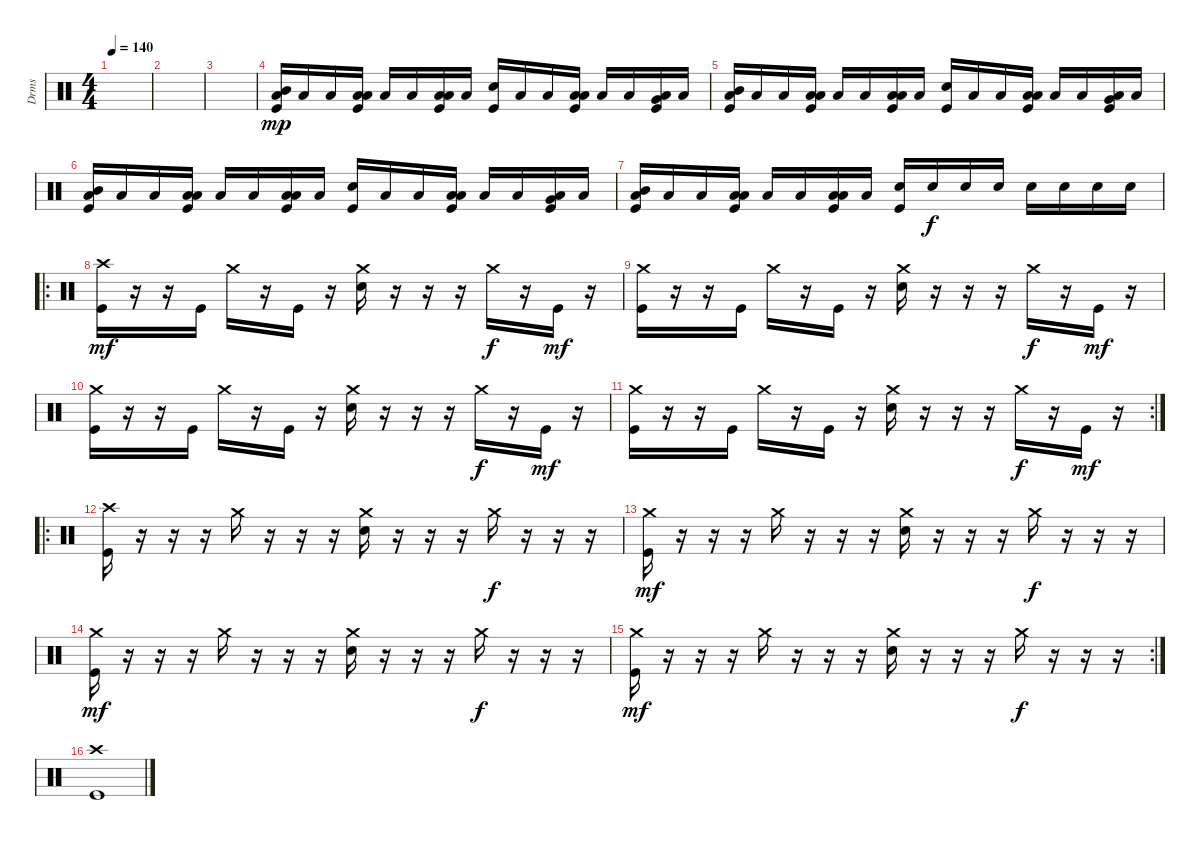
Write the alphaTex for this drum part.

\track ("Drms" "Drms") {instrument percussion}
\staff {score}
\articulation defaults
\ts (4 4)
\tempo 140
\clef neutral
\ks c
|
|
|
("Mid Tom (hit)" "Low Floor Tom (hit)" "Kick (hit)").16{dy mp} "Low Floor Tom (hit)".16 "Low Floor Tom (hit)".16 ("Low Tom (hit)" "Low Floor Tom (hit)" "Kick (hit)").16 "Low Floor Tom (hit)".16 "Low Floor Tom (hit)".16 ("Low Tom (hit)" "Low Floor Tom (hit)" "Kick (hit)").16 "Low Floor Tom (hit)".16 ("Electric Snare (hit)" "Kick (hit)").16 "Low Floor Tom (hit)".16 "Low Floor Tom (hit)".16 ("Low Tom (hit)" "Low Floor Tom (hit)" "Kick (hit)").16 "Low Floor Tom (hit)".16 "Low Floor Tom (hit)".16 ("Very Low Tom (hit)" "Low Floor Tom (hit)" "Kick (hit)").16 "Low Floor Tom (hit)".16 |
("Mid Tom (hit)" "Low Floor Tom (hit)" "Kick (hit)").16 "Low Floor Tom (hit)".16 "Low Floor Tom (hit)".16 ("Low Tom (hit)" "Low Floor Tom (hit)" "Kick (hit)").16 "Low Floor Tom (hit)".16 "Low Floor Tom (hit)".16 ("Low Tom (hit)" "Low Floor Tom (hit)" "Kick (hit)").16 "Low Floor Tom (hit)".16 ("Electric Snare (hit)" "Kick (hit)").16 "Low Floor Tom (hit)".16 "Low Floor Tom (hit)".16 ("Low Tom (hit)" "Low Floor Tom (hit)" "Kick (hit)").16 "Low Floor Tom (hit)".16 "Low Floor Tom (hit)".16 ("Very Low Tom (hit)" "Low Floor Tom (hit)" "Kick (hit)").16 "Low Floor Tom (hit)".16 |
("Mid Tom (hit)" "Low Floor Tom (hit)" "Kick (hit)").16 "Low Floor Tom (hit)".16 "Low Floor Tom (hit)".16 ("Low Tom (hit)" "Low Floor Tom (hit)" "Kick (hit)").16 "Low Floor Tom (hit)".16 "Low Floor Tom (hit)".16 ("Low Tom (hit)" "Low Floor Tom (hit)" "Kick (hit)").16 "Low Floor Tom (hit)".16 ("Electric Snare (hit)" "Kick (hit)").16 "Low Floor Tom (hit)".16 "Low Floor Tom (hit)".16 ("Low Tom (hit)" "Low Floor Tom (hit)" "Kick (hit)").16 "Low Floor Tom (hit)".16 "Low Floor Tom (hit)".16 ("Very Low Tom (hit)" "Low Floor Tom (hit)" "Kick (hit)").16 "Low Floor Tom (hit)".16 |
("Mid Tom (hit)" "Low Floor Tom (hit)" "Kick (hit)").16 "Low Floor Tom (hit)".16 "Low Floor Tom (hit)".16 ("Low Tom (hit)" "Low Floor Tom (hit)" "Kick (hit)").16 "Low Floor Tom (hit)".16 "Low Floor Tom (hit)".16 ("Low Tom (hit)" "Low Floor Tom (hit)" "Kick (hit)").16 "Low Floor Tom (hit)".16 ("Electric Snare (hit)" "Kick (hit)").16 "Electric Snare (hit)".16{dy f} "Electric Snare (hit)".16 "Electric Snare (hit)".16 "Electric Snare (hit)".16 "Electric Snare (hit)".16 "Electric Snare (hit)".16 "Electric Snare (hit)".16 |
\ro
("Crash high (hit)" "Kick (hit)").16{dy mf} r.16 r.16 "Kick (hit)".16 "Crash medium (hit)".16 r.16 "Kick (hit)".16 r.16 ("Crash medium (hit)" "Electric Snare (hit)").16 r.16 r.16 r.16 "Crash medium (hit)".16{dy f} r.16 "Kick (hit)".16{dy mf} r.16 |
("Crash medium (hit)" "Kick (hit)").16 r.16 r.16 "Kick (hit)".16 "Crash medium (hit)".16 r.16 "Kick (hit)".16 r.16 ("Crash medium (hit)" "Electric Snare (hit)").16 r.16 r.16 r.16 "Crash medium (hit)".16{dy f} r.16 "Kick (hit)".16{dy mf} r.16 |
("Crash medium (hit)" "Kick (hit)").16 r.16 r.16 "Kick (hit)".16 "Crash medium (hit)".16 r.16 "Kick (hit)".16 r.16 ("Crash medium (hit)" "Electric Snare (hit)").16 r.16 r.16 r.16 "Crash medium (hit)".16{dy f} r.16 "Kick (hit)".16{dy mf} r.16 |
\rc 2
("Crash medium (hit)" "Kick (hit)").16 r.16 r.16 "Kick (hit)".16 "Crash medium (hit)".16 r.16 "Kick (hit)".16 r.16 ("Crash medium (hit)" "Electric Snare (hit)").16 r.16 r.16 r.16 "Crash medium (hit)".16{dy f} r.16 "Kick (hit)".16{dy mf} r.16 |
\ro
("Crash high (hit)" "Kick (hit)").16 r.16 r.16 r.16 "Crash medium (hit)".16 r.16 r.16 r.16 ("Crash medium (hit)" "Electric Snare (hit)").16 r.16 r.16 r.16 "Crash medium (hit)".16{dy f} r.16 r.16 r.16 |
("Crash medium (hit)" "Kick (hit)").16{dy mf} r.16 r.16 r.16 "Crash medium (hit)".16 r.16 r.16 r.16 ("Crash medium (hit)" "Electric Snare (hit)").16 r.16 r.16 r.16 "Crash medium (hit)".16{dy f} r.16 r.16 r.16 |
("Crash medium (hit)" "Kick (hit)").16{dy mf} r.16 r.16 r.16 "Crash medium (hit)".16 r.16 r.16 r.16 ("Crash medium (hit)" "Electric Snare (hit)").16 r.16 r.16 r.16 "Crash medium (hit)".16{dy f} r.16 r.16 r.16 |
\rc 2
("Crash medium (hit)" "Kick (hit)").16{dy mf} r.16 r.16 r.16 "Crash medium (hit)".16 r.16 r.16 r.16 ("Crash medium (hit)" "Electric Snare (hit)").16 r.16 r.16 r.16 "Crash medium (hit)".16{dy f} r.16 r.16 r.16 |
("Crash high (hit)" "Kick (hit)").1
